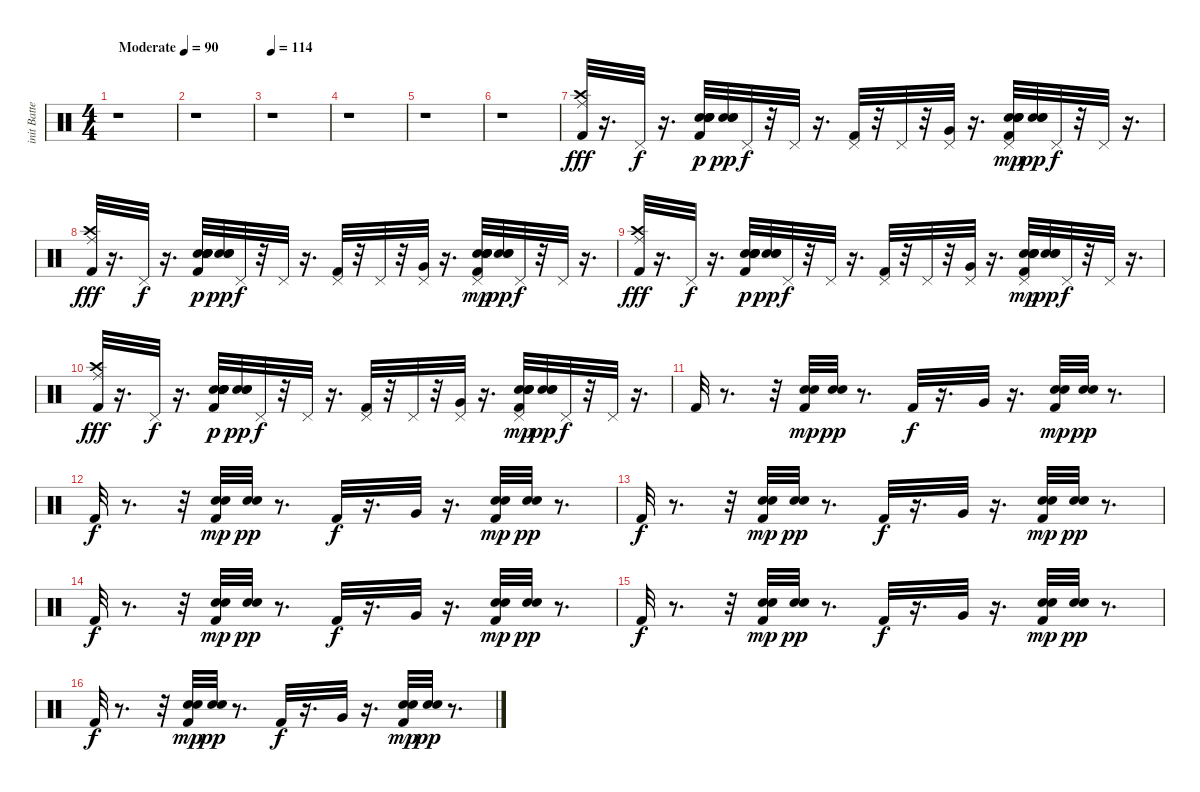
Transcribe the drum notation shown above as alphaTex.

\track ("init Batterie" "init Batte") {instrument percussion}
\staff {score}
\articulation defaults
\ts (4 4)
\tempo (90 "Moderate")
\clef neutral
\ks c
r.1{dy fff} |
r.1 |
\tempo 114
r.1 |
r.1 |
r.1 |
r.1 |
("Kick (hit) 2" "Crash high (hit)" "Ride (middle)").32{volume 16} r.16{d} "Pedal Hi-Hat (hit)".32{dy f} r.16{d} ("Snare (hit) 2" "Hand Clap (hit)" "Kick (hit) 2" "Snare (hit) 2" "Hand Clap (hit)" "Snare (hit) 2").32{dy p} ("Snare (hit) 2" "Hand Clap (hit)" "Hand Clap (hit)").32{dy pp} "Pedal Hi-Hat (hit)".32{dy f} r.32 "Pedal Hi-Hat (hit)".32 r.16{d} ("Kick (hit) 2" "Pedal Hi-Hat (hit)").32 r.32 "Pedal Hi-Hat (hit)".32 r.32 ("Very Low Tom (hit)" "Pedal Hi-Hat (hit)").32 r.16{d} ("Snare (hit) 2" "Hand Clap (hit)" "Kick (hit) 2" "Snare (hit) 2" "Hand Clap (hit)" "Pedal Hi-Hat (hit)").32{dy mp} ("Snare (hit) 2" "Hand Clap (hit)" "Hand Clap (hit)").32{dy pp} "Pedal Hi-Hat (hit)".32{dy f} r.32 "Pedal Hi-Hat (hit)".32 r.16{d} |
("Kick (hit) 2" "Crash high (hit)" "Ride (middle)").32{dy fff} r.16{d} "Pedal Hi-Hat (hit)".32{dy f} r.16{d} ("Snare (hit) 2" "Hand Clap (hit)" "Kick (hit) 2" "Snare (hit) 2" "Hand Clap (hit)" "Snare (hit) 2").32{dy p} ("Snare (hit) 2" "Hand Clap (hit)" "Hand Clap (hit)").32{dy pp} "Pedal Hi-Hat (hit)".32{dy f} r.32 "Pedal Hi-Hat (hit)".32 r.16{d} ("Kick (hit) 2" "Pedal Hi-Hat (hit)").32 r.32 "Pedal Hi-Hat (hit)".32 r.32 ("Very Low Tom (hit)" "Pedal Hi-Hat (hit)").32 r.16{d} ("Snare (hit) 2" "Hand Clap (hit)" "Kick (hit) 2" "Snare (hit) 2" "Hand Clap (hit)" "Pedal Hi-Hat (hit)").32{dy mp} ("Snare (hit) 2" "Hand Clap (hit)" "Hand Clap (hit)").32{dy pp} "Pedal Hi-Hat (hit)".32{dy f} r.32 "Pedal Hi-Hat (hit)".32 r.16{d} |
("Kick (hit) 2" "Crash high (hit)" "Ride (middle)").32{dy fff} r.16{d} "Pedal Hi-Hat (hit)".32{dy f} r.16{d} ("Snare (hit) 2" "Hand Clap (hit)" "Kick (hit) 2" "Snare (hit) 2" "Hand Clap (hit)" "Snare (hit) 2").32{dy p} ("Snare (hit) 2" "Hand Clap (hit)" "Hand Clap (hit)").32{dy pp} "Pedal Hi-Hat (hit)".32{dy f} r.32 "Pedal Hi-Hat (hit)".32 r.16{d} ("Kick (hit) 2" "Pedal Hi-Hat (hit)").32 r.32 "Pedal Hi-Hat (hit)".32 r.32 ("Very Low Tom (hit)" "Pedal Hi-Hat (hit)").32 r.16{d} ("Snare (hit) 2" "Hand Clap (hit)" "Kick (hit) 2" "Snare (hit) 2" "Hand Clap (hit)" "Pedal Hi-Hat (hit)").32{dy mp} ("Snare (hit) 2" "Hand Clap (hit)" "Hand Clap (hit)").32{dy pp} "Pedal Hi-Hat (hit)".32{dy f} r.32 "Pedal Hi-Hat (hit)".32 r.16{d} |
("Kick (hit) 2" "Crash high (hit)" "Ride (middle)").32{dy fff} r.16{d} "Pedal Hi-Hat (hit)".32{dy f} r.16{d} ("Snare (hit) 2" "Hand Clap (hit)" "Kick (hit) 2" "Snare (hit) 2" "Hand Clap (hit)" "Snare (hit) 2").32{dy p} ("Snare (hit) 2" "Hand Clap (hit)" "Hand Clap (hit)").32{dy pp} "Pedal Hi-Hat (hit)".32{dy f} r.32 "Pedal Hi-Hat (hit)".32 r.16{d} ("Kick (hit) 2" "Pedal Hi-Hat (hit)").32 r.32 "Pedal Hi-Hat (hit)".32 r.32 ("Very Low Tom (hit)" "Pedal Hi-Hat (hit)").32 r.16{d} ("Snare (hit) 2" "Hand Clap (hit)" "Kick (hit) 2" "Snare (hit) 2" "Hand Clap (hit)" "Pedal Hi-Hat (hit)").32{dy mp} ("Snare (hit) 2" "Hand Clap (hit)" "Hand Clap (hit)").32{dy pp} "Pedal Hi-Hat (hit)".32{dy f} r.32 "Pedal Hi-Hat (hit)".32 r.16{d} |
"Kick (hit) 2".32 r.8{d} r.32 ("Hand Clap (hit)" "Kick (hit) 2" "Hand Clap (hit)").32{dy mp} ("Hand Clap (hit)" "Hand Clap (hit)").32{dy pp} r.8{d} "Kick (hit) 2".32{dy f} r.16{d} "Very Low Tom (hit)".32 r.16{d} ("Hand Clap (hit)" "Kick (hit) 2" "Hand Clap (hit)").32{dy mp} ("Hand Clap (hit)" "Hand Clap (hit)").32{dy pp} r.8{d} |
"Kick (hit) 2".32{dy f} r.8{d} r.32 ("Hand Clap (hit)" "Kick (hit) 2" "Hand Clap (hit)").32{dy mp} ("Hand Clap (hit)" "Hand Clap (hit)").32{dy pp} r.8{d} "Kick (hit) 2".32{dy f} r.16{d} "Very Low Tom (hit)".32 r.16{d} ("Hand Clap (hit)" "Kick (hit) 2" "Hand Clap (hit)").32{dy mp} ("Hand Clap (hit)" "Hand Clap (hit)").32{dy pp} r.8{d} |
"Kick (hit) 2".32{dy f} r.8{d} r.32 ("Hand Clap (hit)" "Kick (hit) 2" "Hand Clap (hit)").32{dy mp} ("Hand Clap (hit)" "Hand Clap (hit)").32{dy pp} r.8{d} "Kick (hit) 2".32{dy f} r.16{d} "Very Low Tom (hit)".32 r.16{d} ("Hand Clap (hit)" "Kick (hit) 2" "Hand Clap (hit)").32{dy mp} ("Hand Clap (hit)" "Hand Clap (hit)").32{dy pp} r.8{d} |
"Kick (hit) 2".32{dy f} r.8{d} r.32 ("Hand Clap (hit)" "Kick (hit) 2" "Hand Clap (hit)").32{dy mp} ("Hand Clap (hit)" "Hand Clap (hit)").32{dy pp} r.8{d} "Kick (hit) 2".32{dy f} r.16{d} "Very Low Tom (hit)".32 r.16{d} ("Hand Clap (hit)" "Kick (hit) 2" "Hand Clap (hit)").32{dy mp} ("Hand Clap (hit)" "Hand Clap (hit)").32{dy pp} r.8{d} |
"Kick (hit) 2".32{dy f} r.8{d} r.32 ("Hand Clap (hit)" "Kick (hit) 2" "Hand Clap (hit)").32{dy mp} ("Hand Clap (hit)" "Hand Clap (hit)").32{dy pp} r.8{d} "Kick (hit) 2".32{dy f} r.16{d} "Very Low Tom (hit)".32 r.16{d} ("Hand Clap (hit)" "Kick (hit) 2" "Hand Clap (hit)").32{dy mp} ("Hand Clap (hit)" "Hand Clap (hit)").32{dy pp} r.8{d} |
"Kick (hit) 2".32{dy f} r.8{d} r.32 ("Hand Clap (hit)" "Kick (hit) 2" "Hand Clap (hit)").32{dy mp} ("Hand Clap (hit)" "Hand Clap (hit)").32{dy pp} r.8{d} "Kick (hit) 2".32{dy f} r.16{d} "Very Low Tom (hit)".32 r.16{d} ("Hand Clap (hit)" "Kick (hit) 2" "Hand Clap (hit)").32{dy mp} ("Hand Clap (hit)" "Hand Clap (hit)").32{dy pp} r.8{d}
